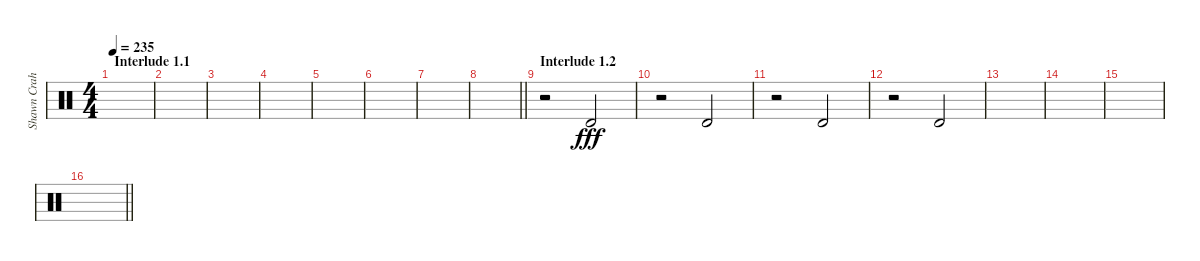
\track ("Shawn Crahan" "Shawn Crah") {instrument percussion}
\staff {score}
\articulation defaults
\ts (4 4)
\section ("" "Interlude 1.1")
\tempo 235
\clef neutral
\ks c
|
|
|
|
|
|
|
\barLineRight lightlight
|
\section ("" "Interlude 1.2")
r.2 "Timbale high (hit)".2{dy fff} |
r.2 "Timbale high (hit)".2 |
r.2 "Timbale high (hit)".2 |
r.2 "Timbale high (hit)".2 |
|
|
|
\barLineRight lightlight
